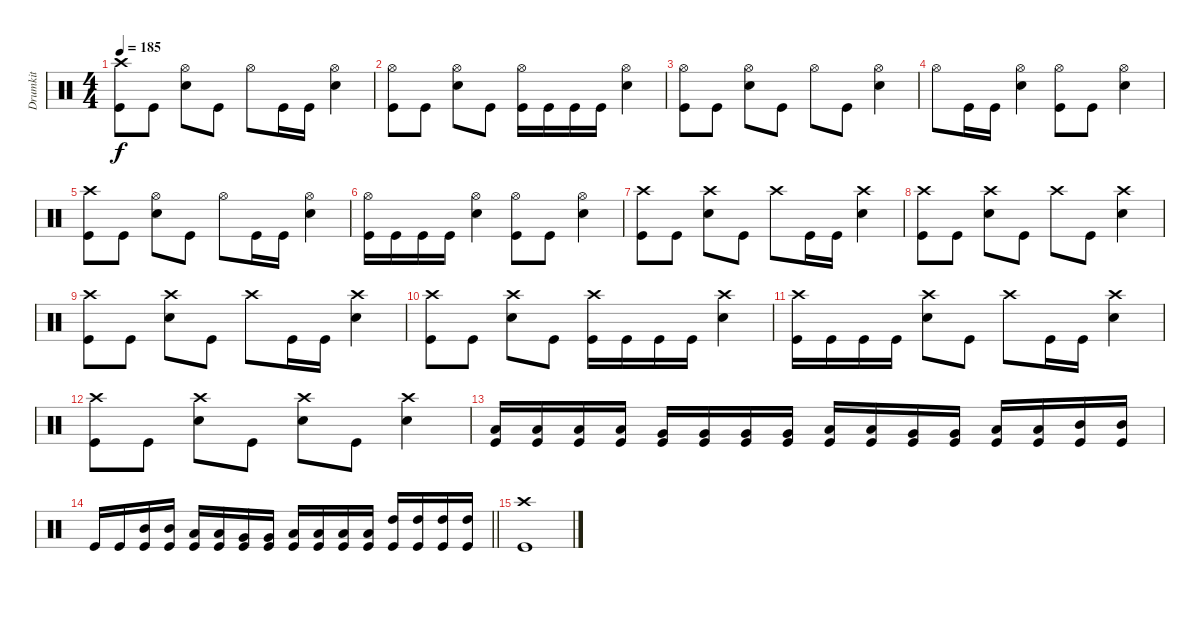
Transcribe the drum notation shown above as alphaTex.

\track ("Drumkit" "Drumkit") {instrument percussion}
\staff {score}
\articulation defaults
\ts (4 4)
\tempo 185
\clef neutral
\ks c
("Crash high (hit)" "Kick (hit)").8{dy f} "Kick (hit)".8 ("Snare (hit) 2" "Hi-Hat (open)").8 "Kick (hit)".8 "Hi-Hat (open)".8 "Kick (hit)".16 "Kick (hit)".16 ("Snare (hit) 2" "Hi-Hat (open)").4 |
("Hi-Hat (open)" "Kick (hit)").8 "Kick (hit)".8 ("Snare (hit) 2" "Hi-Hat (open)").8 "Kick (hit)".8 ("Hi-Hat (open)" "Kick (hit)").16 "Kick (hit)".16 "Kick (hit)".16 "Kick (hit)".16 ("Hi-Hat (open)" "Snare (hit) 2").4 |
("Hi-Hat (open)" "Kick (hit)").8 "Kick (hit)".8 ("Snare (hit) 2" "Hi-Hat (open)").8 "Kick (hit)".8 "Hi-Hat (open)".8 "Kick (hit)".8 ("Snare (hit) 2" "Hi-Hat (open)").4 |
"Hi-Hat (open)".8 "Kick (hit)".16 "Kick (hit)".16 ("Snare (hit) 2" "Hi-Hat (open)").4 ("Hi-Hat (open)" "Kick (hit)").8 "Kick (hit)".8 ("Snare (hit) 2" "Hi-Hat (open)").4 |
("Crash high (hit)" "Kick (hit)").8 "Kick (hit)".8 ("Snare (hit) 2" "Hi-Hat (open)").8 "Kick (hit)".8 "Hi-Hat (open)".8 "Kick (hit)".16 "Kick (hit)".16 ("Snare (hit) 2" "Hi-Hat (open)").4 |
("Hi-Hat (open)" "Kick (hit)").16 "Kick (hit)".16 "Kick (hit)".16 "Kick (hit)".16 ("Snare (hit) 2" "Hi-Hat (open)").4 ("Hi-Hat (open)" "Kick (hit)").8 "Kick (hit)".8 ("Snare (hit) 2" "Hi-Hat (open)").4 |
("Crash high (hit)" "Kick (hit)").8 "Kick (hit)".8 ("Crash high (hit)" "Snare (hit) 2").8 "Kick (hit)".8 "Crash high (hit)".8 "Kick (hit)".16 "Kick (hit)".16 ("Crash high (hit)" "Snare (hit) 2").4 |
("Crash high (hit)" "Kick (hit)").8 "Kick (hit)".8 ("Snare (hit) 2" "Crash high (hit)").8 "Kick (hit)".8 "Crash high (hit)".8 "Kick (hit)".8 ("Snare (hit) 2" "Crash high (hit)").4 |
("Crash high (hit)" "Kick (hit)").8 "Kick (hit)".8 ("Snare (hit) 2" "Crash high (hit)").8 "Kick (hit)".8 "Crash high (hit)".8 "Kick (hit)".16 "Kick (hit)".16 ("Snare (hit) 2" "Crash high (hit)").4 |
("Crash high (hit)" "Kick (hit)").8 "Kick (hit)".8 ("Snare (hit) 2" "Crash high (hit)").8 "Kick (hit)".8 ("Crash high (hit)" "Kick (hit)").16 "Kick (hit)".16 "Kick (hit)".16 "Kick (hit)".16 ("Crash high (hit)" "Snare (hit) 2").4 |
("Crash high (hit)" "Kick (hit)").16 "Kick (hit)".16 "Kick (hit)".16 "Kick (hit)".16 ("Crash high (hit)" "Snare (hit) 2").8 "Kick (hit)".8 "Crash high (hit)".8 "Kick (hit)".16 "Kick (hit)".16 ("Snare (hit) 2" "Crash high (hit)").4 |
("Crash high (hit)" "Kick (hit)").8 "Kick (hit)".8 ("Snare (hit) 2" "Crash high (hit)").8 "Kick (hit)".8 ("Snare (hit) 2" "Crash high (hit)").8 "Kick (hit)".8 ("Snare (hit) 2" "Crash high (hit)").4 |
("Low Floor Tom (hit)" "Kick (hit)").16 ("Low Floor Tom (hit)" "Kick (hit)").16 ("Low Floor Tom (hit)" "Kick (hit)").16 ("Low Floor Tom (hit)" "Kick (hit)").16 ("Very Low Tom (hit)" "Kick (hit)").16 ("Very Low Tom (hit)" "Kick (hit)").16 ("Very Low Tom (hit)" "Kick (hit)").16 ("Very Low Tom (hit)" "Kick (hit)").16 ("Low Tom (hit)" "Kick (hit)").16 ("Low Tom (hit)" "Kick (hit)").16 ("Very Low Tom (hit)" "Kick (hit)").16 ("Very Low Tom (hit)" "Kick (hit)").16 ("Low Tom (hit)" "Kick (hit)").16 ("Low Tom (hit)" "Kick (hit)").16 ("Mid Tom (hit)" "Kick (hit)").16 ("Mid Tom (hit)" "Kick (hit)").16 |
\barLineRight lightlight "Kick (hit)".16 "Kick (hit)".16
("Mid Tom (hit)" "Kick (hit)").16 ("Mid Tom (hit)" "Kick (hit)").16 ("Low Tom (hit)" "Kick (hit)").16 ("Low Tom (hit)" "Kick (hit)").16 ("Very Low Tom (hit)" "Kick (hit)").16 ("Very Low Tom (hit)" "Kick (hit)").16 ("Low Tom (hit)" "Kick (hit)").16 ("Low Tom (hit)" "Kick (hit)").16 ("Low Tom (hit)" "Kick (hit)").16 ("Low Tom (hit)" "Kick (hit)").16 ("High Tom (hit)" "Kick (hit)").16 ("High Tom (hit)" "Kick (hit)").16 ("High Tom (hit)" "Kick (hit)").16 ("High Tom (hit)" "Kick (hit)").16 |
("Crash high (hit)" "Kick (hit)").1
